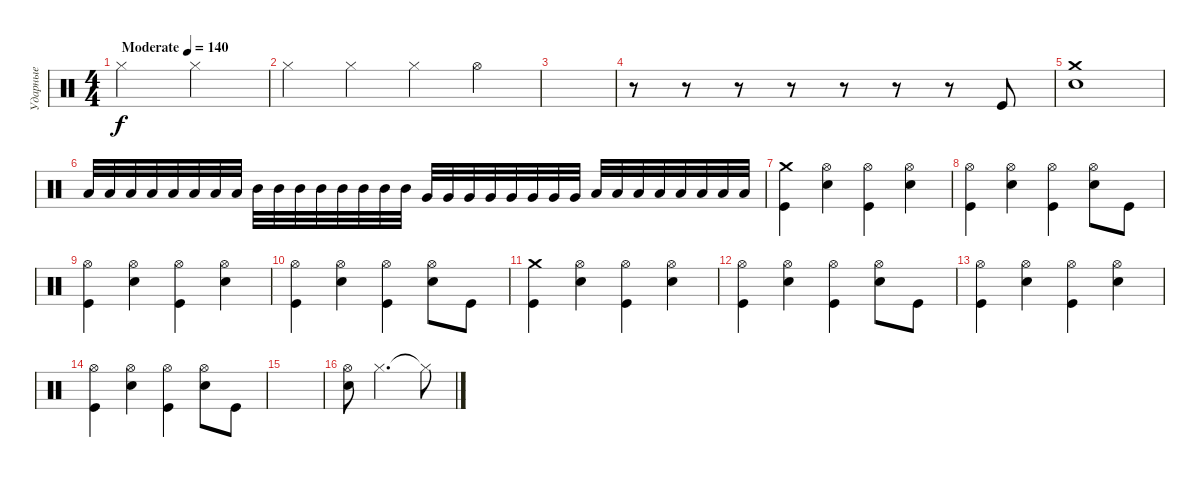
\track ("Ударные" "Ударные") {instrument percussion}
\staff {score}
\articulation defaults
\ts (4 4)
\tempo (140 "Moderate")
\clef neutral
\ks c "Hi-Hat (closed)".2{dy f} "Hi-Hat (closed)".2
|
"Hi-Hat (closed)".4 "Hi-Hat (closed)".4 "Hi-Hat (closed)".4 "Hi-Hat (open)".4 |
|
r.8 r.8 r.8 r.8 r.8 r.8 r.8 "Kick (hit)".8 |
("Electric Snare (hit)" "Crash medium (hit)").1 |
"Low Tom (hit)".32 "Low Tom (hit)".32 "Low Tom (hit)".32 "Low Tom (hit)".32 "Low Tom (hit)".32 "Low Tom (hit)".32 "Low Tom (hit)".32 "Low Tom (hit)".32 "Mid Tom (hit)".32 "Mid Tom (hit)".32 "Mid Tom (hit)".32 "Mid Tom (hit)".32 "Mid Tom (hit)".32 "Mid Tom (hit)".32 "Mid Tom (hit)".32 "Mid Tom (hit)".32 "Very Low Tom (hit)".32 "Very Low Tom (hit)".32 "Very Low Tom (hit)".32 "Very Low Tom (hit)".32 "Very Low Tom (hit)".32 "Very Low Tom (hit)".32 "Very Low Tom (hit)".32 "Very Low Tom (hit)".32 "Low Floor Tom (hit)".32 "Low Floor Tom (hit)".32 "Low Floor Tom (hit)".32 "Low Floor Tom (hit)".32 "Low Floor Tom (hit)".32 "Low Floor Tom (hit)".32 "Low Floor Tom (hit)".32 "Low Floor Tom (hit)".32 |
("Kick (hit)" "Crash medium (hit)").4 ("Hi-Hat (open)" "Electric Snare (hit)").4 ("Hi-Hat (open)" "Kick (hit)").4 ("Hi-Hat (open)" "Electric Snare (hit)").4 |
("Kick (hit)" "Hi-Hat (open)").4 ("Hi-Hat (open)" "Electric Snare (hit)").4 ("Hi-Hat (open)" "Kick (hit)").4 ("Hi-Hat (open)" "Electric Snare (hit)").8 "Kick (hit)".8 |
("Kick (hit)" "Hi-Hat (open)").4 ("Hi-Hat (open)" "Electric Snare (hit)").4 ("Hi-Hat (open)" "Kick (hit)").4 ("Hi-Hat (open)" "Electric Snare (hit)").4 |
("Kick (hit)" "Hi-Hat (open)").4 ("Hi-Hat (open)" "Electric Snare (hit)").4 ("Hi-Hat (open)" "Kick (hit)").4 ("Hi-Hat (open)" "Electric Snare (hit)").8 "Kick (hit)".8 |
("Kick (hit)" "Crash medium (hit)").4 ("Hi-Hat (open)" "Electric Snare (hit)").4 ("Hi-Hat (open)" "Kick (hit)").4 ("Hi-Hat (open)" "Electric Snare (hit)").4 |
("Kick (hit)" "Hi-Hat (open)").4 ("Hi-Hat (open)" "Electric Snare (hit)").4 ("Hi-Hat (open)" "Kick (hit)").4 ("Hi-Hat (open)" "Electric Snare (hit)").8 "Kick (hit)".8 |
("Kick (hit)" "Hi-Hat (open)").4 ("Hi-Hat (open)" "Electric Snare (hit)").4 ("Hi-Hat (open)" "Kick (hit)").4 ("Hi-Hat (open)" "Electric Snare (hit)").4 |
("Kick (hit)" "Hi-Hat (open)").4 ("Hi-Hat (open)" "Electric Snare (hit)").4 ("Hi-Hat (open)" "Kick (hit)").4 ("Hi-Hat (open)" "Electric Snare (hit)").8 "Kick (hit)".8 |
|
("Hi-Hat (open)" "Electric Snare (hit)").8 "Hi-Hat (closed)".2{d} "Hi-Hat (closed)"{t}.8
